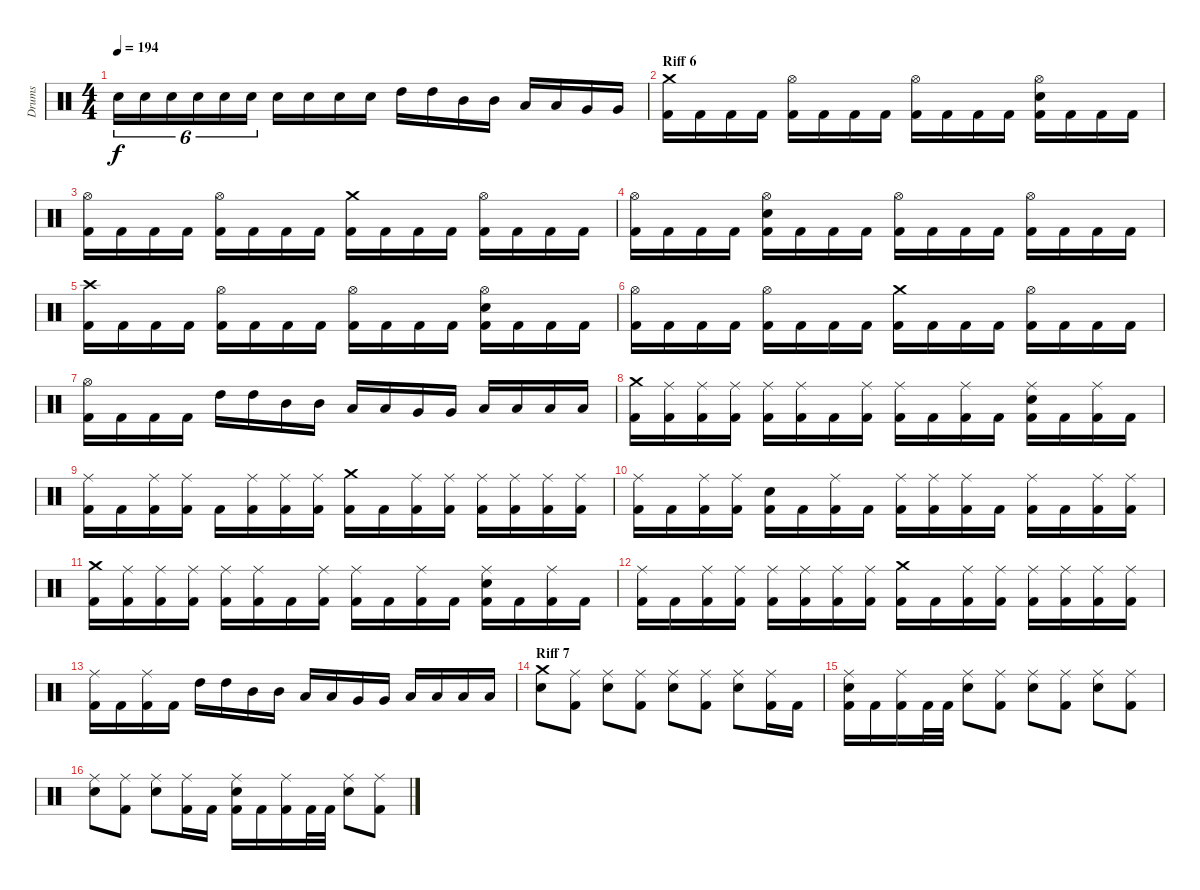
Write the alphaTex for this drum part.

\track ("Drums" "Drums") {instrument percussion}
\staff {score}
\articulation defaults
\ts (4 4)
\tempo 194
\clef neutral
\ks c "Electric Snare (hit)".16{tu (6 4) dy f} "Electric Snare (hit)".16{tu (6 4)} "Electric Snare (hit)".16{tu (6 4)} "Electric Snare (hit)".16{tu (6 4)} "Electric Snare (hit)".16{tu (6 4)} "Electric Snare (hit)".16{tu (6 4)} "Electric Snare (hit)".16 "Electric Snare (hit)".16 "Electric Snare (hit)".16 "Electric Snare (hit)".16 "High Tom (hit)".16 "High Tom (hit)".16 "Mid Tom (hit)".16 "Mid Tom (hit)".16 "Low Tom (hit)".16 "Low Tom (hit)".16 "Very Low Tom (hit)".16 "Very Low Tom (hit)".16
|
\section ("" "Riff 6")
("Crash medium (hit)" "Kick (hit) 2").16 "Kick (hit) 2".16 "Kick (hit) 2".16 "Kick (hit) 2".16 ("Hi-Hat (open)" "Kick (hit) 2").16 "Kick (hit) 2".16 "Kick (hit) 2".16 "Kick (hit) 2".16 ("Hi-Hat (open)" "Kick (hit) 2").16 "Kick (hit) 2".16 "Kick (hit) 2".16 "Kick (hit) 2".16 ("Hi-Hat (open)" "Electric Snare (hit)" "Kick (hit) 2").16 "Kick (hit) 2".16 "Kick (hit) 2".16 "Kick (hit) 2".16 |
("Hi-Hat (open)" "Kick (hit) 2").16 "Kick (hit) 2".16 "Kick (hit) 2".16 "Kick (hit) 2".16 ("Hi-Hat (open)" "Kick (hit) 2").16 "Kick (hit) 2".16 "Kick (hit) 2".16 "Kick (hit) 2".16 ("Crash medium (hit)" "Kick (hit) 2").16 "Kick (hit) 2".16 "Kick (hit) 2".16 "Kick (hit) 2".16 ("Hi-Hat (open)" "Kick (hit) 2").16 "Kick (hit) 2".16 "Kick (hit) 2".16 "Kick (hit) 2".16 |
("Hi-Hat (open)" "Kick (hit) 2").16 "Kick (hit) 2".16 "Kick (hit) 2".16 "Kick (hit) 2".16 ("Hi-Hat (open)" "Electric Snare (hit)" "Kick (hit) 2").16 "Kick (hit) 2".16 "Kick (hit) 2".16 "Kick (hit) 2".16 ("Hi-Hat (open)" "Kick (hit) 2").16 "Kick (hit) 2".16 "Kick (hit) 2".16 "Kick (hit) 2".16 ("Hi-Hat (open)" "Kick (hit) 2").16 "Kick (hit) 2".16 "Kick (hit) 2".16 "Kick (hit) 2".16 |
("Crash high (hit)" "Kick (hit) 2").16 "Kick (hit) 2".16 "Kick (hit) 2".16 "Kick (hit) 2".16 ("Hi-Hat (open)" "Kick (hit) 2").16 "Kick (hit) 2".16 "Kick (hit) 2".16 "Kick (hit) 2".16 ("Hi-Hat (open)" "Kick (hit) 2").16 "Kick (hit) 2".16 "Kick (hit) 2".16 "Kick (hit) 2".16 ("Hi-Hat (open)" "Electric Snare (hit)" "Kick (hit) 2").16 "Kick (hit) 2".16 "Kick (hit) 2".16 "Kick (hit) 2".16 |
("Hi-Hat (open)" "Kick (hit) 2").16 "Kick (hit) 2".16 "Kick (hit) 2".16 "Kick (hit) 2".16 ("Hi-Hat (open)" "Kick (hit) 2").16 "Kick (hit) 2".16 "Kick (hit) 2".16 "Kick (hit) 2".16 ("Crash medium (hit)" "Kick (hit) 2").16 "Kick (hit) 2".16 "Kick (hit) 2".16 "Kick (hit) 2".16 ("Hi-Hat (open)" "Kick (hit) 2").16 "Kick (hit) 2".16 "Kick (hit) 2".16 "Kick (hit) 2".16 |
("Hi-Hat (open)" "Kick (hit) 2").16 "Kick (hit) 2".16 "Kick (hit) 2".16 "Kick (hit) 2".16 "High Tom (hit)".16 "High Tom (hit)".16 "Mid Tom (hit)".16 "Mid Tom (hit)".16 "Low Tom (hit)".16 "Low Tom (hit)".16 "Very Low Tom (hit)".16 "Very Low Tom (hit)".16 "Low Floor Tom (hit)".16 "Low Floor Tom (hit)".16 "Low Floor Tom (hit)".16 "Low Floor Tom (hit)".16 |
("Crash medium (hit)" "Kick (hit) 2").16 ("Ride (middle)" "Kick (hit) 2").16 ("Ride (middle)" "Kick (hit) 2").16 ("Ride (middle)" "Kick (hit) 2").16 ("Ride (middle)" "Kick (hit) 2").16 ("Ride (middle)" "Kick (hit) 2").16 "Kick (hit) 2".16 ("Ride (middle)" "Kick (hit) 2").16 ("Ride (middle)" "Kick (hit) 2").16 "Kick (hit) 2".16 ("Ride (middle)" "Kick (hit) 2").16 "Kick (hit) 2".16 ("Ride (middle)" "Electric Snare (hit)" "Kick (hit) 2").16 "Kick (hit) 2".16 ("Ride (middle)" "Kick (hit) 2").16 "Kick (hit) 2".16 |
("Ride (middle)" "Kick (hit) 2").16 "Kick (hit) 2".16 ("Ride (middle)" "Kick (hit) 2").16 ("Ride (middle)" "Kick (hit) 2").16 "Kick (hit) 2".16 ("Ride (middle)" "Kick (hit) 2").16 ("Ride (middle)" "Kick (hit) 2").16 ("Ride (middle)" "Kick (hit) 2").16 ("Crash medium (hit)" "Kick (hit) 2").16 "Kick (hit) 2".16 ("Ride (middle)" "Kick (hit) 2").16 ("Ride (middle)" "Kick (hit) 2").16 ("Ride (middle)" "Kick (hit) 2").16 ("Ride (middle)" "Kick (hit) 2").16 ("Ride (middle)" "Kick (hit) 2").16 ("Ride (middle)" "Kick (hit) 2").16 |
("Ride (middle)" "Kick (hit) 2").16 "Kick (hit) 2".16 ("Ride (middle)" "Kick (hit) 2").16 ("Ride (middle)" "Kick (hit) 2").16 ("Electric Snare (hit)" "Kick (hit) 2").16 "Kick (hit) 2".16 ("Ride (middle)" "Kick (hit) 2").16 "Kick (hit) 2".16 ("Ride (middle)" "Kick (hit) 2").16 ("Ride (middle)" "Kick (hit) 2").16 ("Ride (middle)" "Kick (hit) 2").16 "Kick (hit) 2".16 ("Ride (middle)" "Kick (hit) 2").16 "Kick (hit) 2".16 ("Ride (middle)" "Kick (hit) 2").16 ("Ride (middle)" "Kick (hit) 2").16 |
("Crash medium (hit)" "Kick (hit) 2").16 ("Ride (middle)" "Kick (hit) 2").16 ("Ride (middle)" "Kick (hit) 2").16 ("Ride (middle)" "Kick (hit) 2").16 ("Ride (middle)" "Kick (hit) 2").16 ("Ride (middle)" "Kick (hit) 2").16 "Kick (hit) 2".16 ("Ride (middle)" "Kick (hit) 2").16 ("Ride (middle)" "Kick (hit) 2").16 "Kick (hit) 2".16 ("Ride (middle)" "Kick (hit) 2").16 "Kick (hit) 2".16 ("Ride (middle)" "Electric Snare (hit)" "Kick (hit) 2").16 "Kick (hit) 2".16 ("Ride (middle)" "Kick (hit) 2").16 "Kick (hit) 2".16 |
("Ride (middle)" "Kick (hit) 2").16 "Kick (hit) 2".16 ("Ride (middle)" "Kick (hit) 2").16 ("Ride (middle)" "Kick (hit) 2").16 ("Ride (middle)" "Kick (hit) 2").16 ("Ride (middle)" "Kick (hit) 2").16 ("Ride (middle)" "Kick (hit) 2").16 ("Ride (middle)" "Kick (hit) 2").16 ("Crash medium (hit)" "Kick (hit) 2").16 "Kick (hit) 2".16 ("Ride (middle)" "Kick (hit) 2").16 ("Ride (middle)" "Kick (hit) 2").16 ("Ride (middle)" "Kick (hit) 2").16 ("Ride (middle)" "Kick (hit) 2").16 ("Ride (middle)" "Kick (hit) 2").16 ("Ride (middle)" "Kick (hit) 2").16 |
("Ride (middle)" "Kick (hit) 2").16 "Kick (hit) 2".16 ("Ride (middle)" "Kick (hit) 2").16 "Kick (hit) 2".16 "High Tom (hit)".16 "High Tom (hit)".16 "Mid Tom (hit)".16 "Mid Tom (hit)".16 "Low Tom (hit)".16 "Low Tom (hit)".16 "Very Low Tom (hit)".16 "Very Low Tom (hit)".16 "Low Floor Tom (hit)".16 "Low Floor Tom (hit)".16 "Low Floor Tom (hit)".16 "Low Floor Tom (hit)".16 |
\section ("" "Riff 7")
("Crash medium (hit)" "Electric Snare (hit)").8 ("Ride (middle)" "Kick (hit) 2").8 ("Ride (middle)" "Electric Snare (hit)").8 ("Ride (middle)" "Kick (hit) 2").8 ("Ride (middle)" "Electric Snare (hit)").8 ("Ride (middle)" "Kick (hit) 2").8 ("Ride (middle)" "Electric Snare (hit)").8 ("Ride (middle)" "Kick (hit) 2").16 "Kick (hit) 2".16 |
("Ride (middle)" "Electric Snare (hit)" "Kick (hit) 2").16 "Kick (hit) 2".16 ("Ride (middle)" "Kick (hit) 2").16 "Kick (hit) 2".32 "Kick (hit) 2".32 ("Ride (middle)" "Electric Snare (hit)").8 ("Ride (middle)" "Kick (hit) 2").8 ("Ride (middle)" "Electric Snare (hit)").8 ("Ride (middle)" "Kick (hit) 2").8 ("Ride (middle)" "Electric Snare (hit)").8 ("Ride (middle)" "Kick (hit) 2").8 |
("Ride (middle)" "Electric Snare (hit)").8 ("Ride (middle)" "Kick (hit) 2").8 ("Ride (middle)" "Electric Snare (hit)").8 ("Ride (middle)" "Kick (hit) 2").16 "Kick (hit) 2".16 ("Ride (middle)" "Electric Snare (hit)" "Kick (hit) 2").16 "Kick (hit) 2".16 ("Ride (middle)" "Kick (hit) 2").16 "Kick (hit) 2".32 "Kick (hit) 2".32 ("Ride (middle)" "Electric Snare (hit)").8 ("Ride (middle)" "Kick (hit) 2").8
